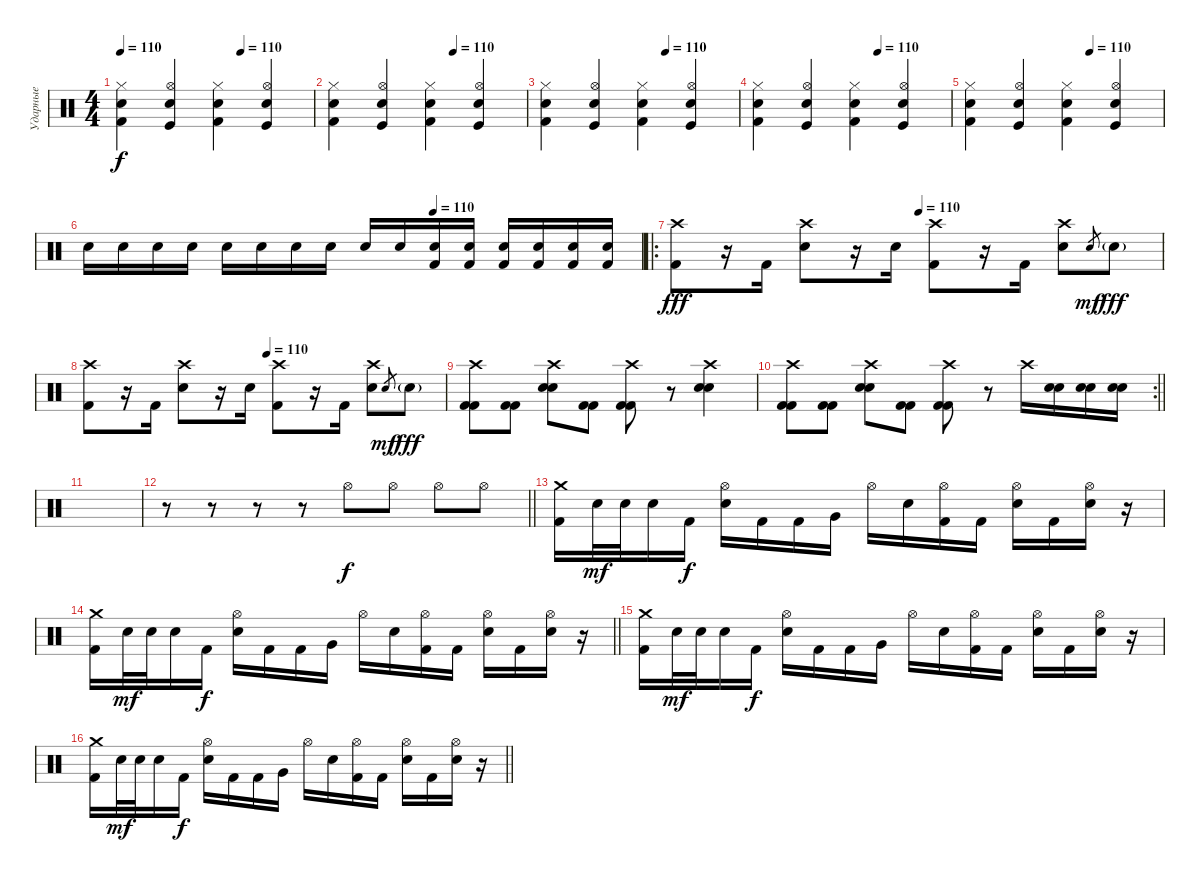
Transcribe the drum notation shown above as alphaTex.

\track ("Ударные" "Ударные") {instrument percussion}
\staff {score}
\articulation defaults
\ts (4 4)
\tempo 110
\tempo (110 0.625)
\clef neutral
\ks c
("Hi-Hat (closed)" "Snare (hit) 2" "Kick (hit) 2").4{dy f} ("Electric Snare (hit)" "Hi-Hat (open)" "Kick (hit)").4 ("Hi-Hat (closed)" "Snare (hit) 2" "Kick (hit) 2").4 ("Electric Snare (hit)" "Hi-Hat (open)" "Kick (hit)").4 |
\tempo (110 0.625)
("Hi-Hat (closed)" "Snare (hit) 2" "Kick (hit) 2").4 ("Electric Snare (hit)" "Hi-Hat (open)" "Kick (hit)").4 ("Hi-Hat (closed)" "Snare (hit) 2" "Kick (hit) 2").4 ("Electric Snare (hit)" "Hi-Hat (open)" "Kick (hit)").4 |
\tempo (110 0.625)
("Hi-Hat (closed)" "Snare (hit) 2" "Kick (hit) 2").4 ("Electric Snare (hit)" "Hi-Hat (open)" "Kick (hit)").4 ("Hi-Hat (closed)" "Snare (hit) 2" "Kick (hit) 2").4 ("Electric Snare (hit)" "Hi-Hat (open)" "Kick (hit)").4 |
\tempo (110 0.625)
("Hi-Hat (closed)" "Snare (hit) 2" "Kick (hit) 2").4 ("Electric Snare (hit)" "Hi-Hat (open)" "Kick (hit)").4 ("Hi-Hat (closed)" "Snare (hit) 2" "Kick (hit) 2").4 ("Electric Snare (hit)" "Hi-Hat (open)" "Kick (hit)").4 |
\tempo (110 0.625)
("Hi-Hat (closed)" "Snare (hit) 2" "Kick (hit) 2").4 ("Electric Snare (hit)" "Hi-Hat (open)" "Kick (hit)").4 ("Hi-Hat (closed)" "Snare (hit) 2" "Kick (hit) 2").4 ("Electric Snare (hit)" "Hi-Hat (open)" "Kick (hit)").4 |
\tempo (110 0.625)
"Electric Snare (hit)".16 "Electric Snare (hit)".16 "Electric Snare (hit)".16 "Electric Snare (hit)".16 "Electric Snare (hit)".16 "Electric Snare (hit)".16 "Electric Snare (hit)".16 "Electric Snare (hit)".16 "Electric Snare (hit)".16 "Electric Snare (hit)".16 ("Electric Snare (hit)" "Kick (hit) 2").16 ("Electric Snare (hit)" "Kick (hit) 2").16 ("Electric Snare (hit)" "Kick (hit) 2").16 ("Electric Snare (hit)" "Kick (hit) 2").16 ("Electric Snare (hit)" "Kick (hit) 2").16 ("Electric Snare (hit)" "Kick (hit) 2").16 |
\ro
\tempo (110 0.5)
("Crash high (hit)" "Kick (hit) 2").8{dy fff} r.16 "Kick (hit) 2".16 ("Crash high (hit)" "Electric Snare (hit)").8 r.16 "Electric Snare (hit)".16 ("Crash high (hit)" "Kick (hit) 2").8 r.16 "Kick (hit) 2".16 ("Crash high (hit)" "Electric Snare (hit)").8 "Electric Snare (hit)".8{gr dy mf} "Electric Snare (hit)"{g}.8{dy fff} |
\tempo (110 0.5)
("Crash high (hit)" "Kick (hit) 2").8 r.16 "Kick (hit) 2".16 ("Crash high (hit)" "Electric Snare (hit)").8 r.16 "Electric Snare (hit)".16 ("Crash high (hit)" "Kick (hit) 2").8 r.16 "Kick (hit) 2".16 ("Crash high (hit)" "Electric Snare (hit)").8 "Electric Snare (hit)".8{gr dy mf} "Electric Snare (hit)"{g}.8{dy fff} |
("Kick (hit) 2" "Kick (hit) 2" "Crash high (hit)").8 ("Kick (hit) 2" "Kick (hit) 2").8 ("Electric Snare (hit)" "Electric Snare (hit)" "Crash high (hit)").8 ("Kick (hit) 2" "Kick (hit) 2").8 ("Kick (hit) 2" "Kick (hit) 2" "Crash high (hit)").8 r.8 ("Electric Snare (hit)" "Electric Snare (hit)" "Crash high (hit)").4 |
\rc 2
\barLineRight lightlight
("Kick (hit) 2" "Kick (hit) 2" "Crash high (hit)").8 ("Kick (hit) 2" "Kick (hit) 2").8 ("Electric Snare (hit)" "Electric Snare (hit)" "Crash high (hit)").8 ("Kick (hit) 2" "Kick (hit) 2").8 ("Kick (hit) 2" "Kick (hit) 2" "Crash high (hit)").8 r.8 "Crash high (hit)".16 ("Snare (hit) 2" "Electric Snare (hit)").16 ("Snare (hit) 2" "Electric Snare (hit)").16 ("Snare (hit) 2" "Electric Snare (hit)").16 |
|
\barLineRight lightlight
r.8 r.8 r.8 r.8 "Hi-Hat (open)".8{dy f} "Hi-Hat (open)".8 "Hi-Hat (open)".8 "Hi-Hat (open)".8 |
("Crash medium (hit)" "Kick (hit) 2").16 "Electric Snare (hit)".32{dy mf} "Electric Snare (hit)".32 "Electric Snare (hit)".16 "Kick (hit) 2".16{dy f} ("Hi-Hat (open)" "Electric Snare (hit)").16 "Kick (hit) 2".16 "Kick (hit) 2".16 "Very Low Tom (hit)".16 "Hi-Hat (open)".16 "Electric Snare (hit)".16 ("Hi-Hat (open)" "Kick (hit) 2").16 "Kick (hit) 2".16 ("Hi-Hat (open)" "Electric Snare (hit)").16 "Kick (hit) 2".16 ("Hi-Hat (open)" "Electric Snare (hit)").16 r.16 |
\barLineRight lightlight
("Crash medium (hit)" "Kick (hit) 2").16 "Electric Snare (hit)".32{dy mf} "Electric Snare (hit)".32 "Electric Snare (hit)".16 "Kick (hit) 2".16{dy f} ("Hi-Hat (open)" "Electric Snare (hit)").16 "Kick (hit) 2".16 "Kick (hit) 2".16 "Very Low Tom (hit)".16 "Hi-Hat (open)".16 "Electric Snare (hit)".16 ("Hi-Hat (open)" "Kick (hit) 2").16 "Kick (hit) 2".16 ("Hi-Hat (open)" "Electric Snare (hit)").16 "Kick (hit) 2".16 ("Hi-Hat (open)" "Electric Snare (hit)").16 r.16 |
("Crash medium (hit)" "Kick (hit) 2").16 "Electric Snare (hit)".32{dy mf} "Electric Snare (hit)".32 "Electric Snare (hit)".16 "Kick (hit) 2".16{dy f} ("Hi-Hat (open)" "Electric Snare (hit)").16 "Kick (hit) 2".16 "Kick (hit) 2".16 "Very Low Tom (hit)".16 "Hi-Hat (open)".16 "Electric Snare (hit)".16 ("Hi-Hat (open)" "Kick (hit) 2").16 "Kick (hit) 2".16 ("Hi-Hat (open)" "Electric Snare (hit)").16 "Kick (hit) 2".16 ("Hi-Hat (open)" "Electric Snare (hit)").16 r.16 |
\barLineRight lightlight
("Crash medium (hit)" "Kick (hit) 2").16 "Electric Snare (hit)".32{dy mf} "Electric Snare (hit)".32 "Electric Snare (hit)".16 "Kick (hit) 2".16{dy f} ("Hi-Hat (open)" "Electric Snare (hit)").16 "Kick (hit) 2".16 "Kick (hit) 2".16 "Very Low Tom (hit)".16 "Hi-Hat (open)".16 "Electric Snare (hit)".16 ("Hi-Hat (open)" "Kick (hit) 2").16 "Kick (hit) 2".16 ("Hi-Hat (open)" "Electric Snare (hit)").16 "Kick (hit) 2".16 ("Hi-Hat (open)" "Electric Snare (hit)").16 r.16
